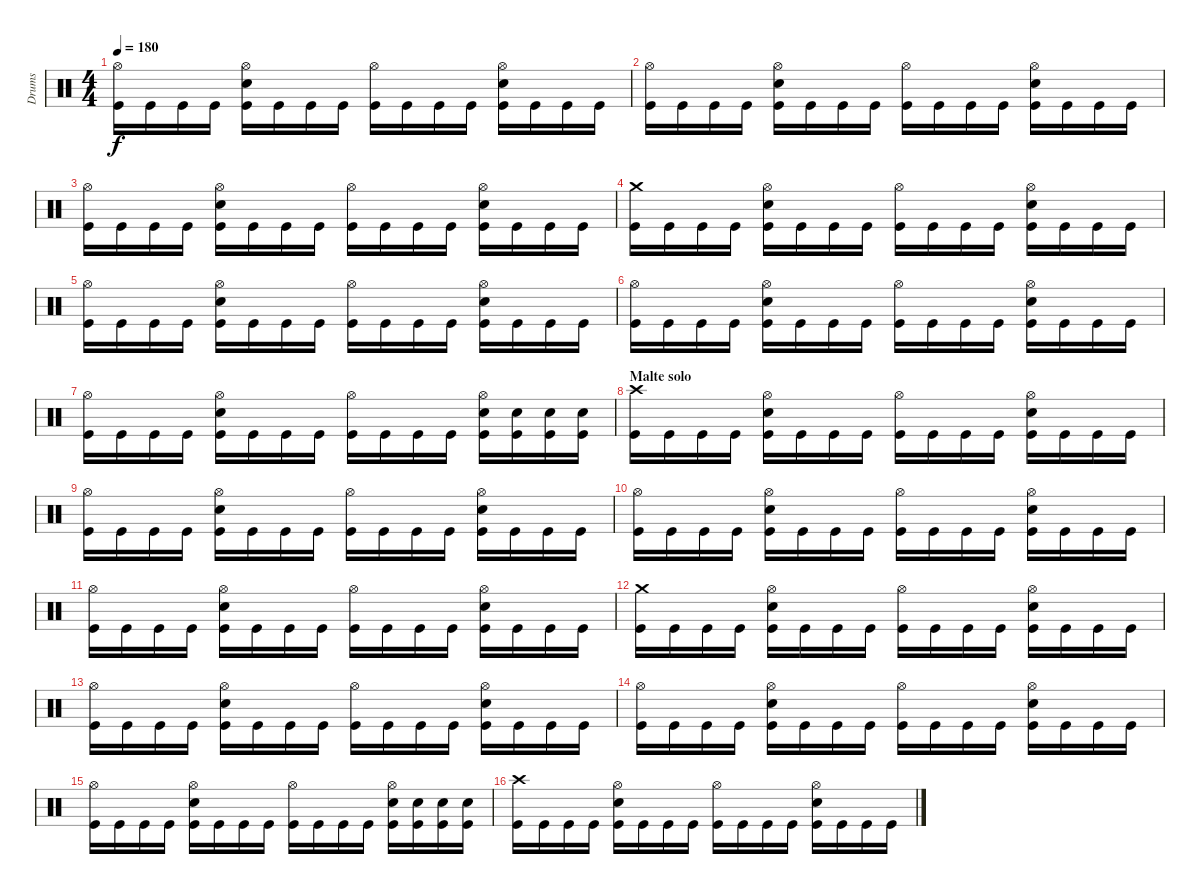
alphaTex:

\track ("Drums" "Drums") {instrument percussion}
\staff {score}
\articulation defaults
\ts (4 4)
\tempo 180
\clef neutral
\ks c
("Hi-Hat (open)" "Kick (hit)").16{dy f} "Kick (hit)".16 "Kick (hit)".16 "Kick (hit)".16 ("Hi-Hat (open)" "Snare (hit) 2" "Kick (hit)").16 "Kick (hit)".16 "Kick (hit)".16 "Kick (hit)".16 ("Hi-Hat (open)" "Kick (hit)").16 "Kick (hit)".16 "Kick (hit)".16 "Kick (hit)".16 ("Hi-Hat (open)" "Snare (hit) 2" "Kick (hit)").16 "Kick (hit)".16 "Kick (hit)".16 "Kick (hit)".16 |
("Hi-Hat (open)" "Kick (hit)").16 "Kick (hit)".16 "Kick (hit)".16 "Kick (hit)".16 ("Hi-Hat (open)" "Snare (hit) 2" "Kick (hit)").16 "Kick (hit)".16 "Kick (hit)".16 "Kick (hit)".16 ("Hi-Hat (open)" "Kick (hit)").16 "Kick (hit)".16 "Kick (hit)".16 "Kick (hit)".16 ("Hi-Hat (open)" "Snare (hit) 2" "Kick (hit)").16 "Kick (hit)".16 "Kick (hit)".16 "Kick (hit)".16 |
("Hi-Hat (open)" "Kick (hit)").16 "Kick (hit)".16 "Kick (hit)".16 "Kick (hit)".16 ("Hi-Hat (open)" "Snare (hit) 2" "Kick (hit)").16 "Kick (hit)".16 "Kick (hit)".16 "Kick (hit)".16 ("Hi-Hat (open)" "Kick (hit)").16 "Kick (hit)".16 "Kick (hit)".16 "Kick (hit)".16 ("Hi-Hat (open)" "Snare (hit) 2" "Kick (hit)").16 "Kick (hit)".16 "Kick (hit)".16 "Kick (hit)".16 |
("Crash medium (hit)" "Kick (hit)").16 "Kick (hit)".16 "Kick (hit)".16 "Kick (hit)".16 ("Hi-Hat (open)" "Snare (hit) 2" "Kick (hit)").16 "Kick (hit)".16 "Kick (hit)".16 "Kick (hit)".16 ("Hi-Hat (open)" "Kick (hit)").16 "Kick (hit)".16 "Kick (hit)".16 "Kick (hit)".16 ("Hi-Hat (open)" "Snare (hit) 2" "Kick (hit)").16 "Kick (hit)".16 "Kick (hit)".16 "Kick (hit)".16 |
("Hi-Hat (open)" "Kick (hit)").16 "Kick (hit)".16 "Kick (hit)".16 "Kick (hit)".16 ("Hi-Hat (open)" "Snare (hit) 2" "Kick (hit)").16 "Kick (hit)".16 "Kick (hit)".16 "Kick (hit)".16 ("Hi-Hat (open)" "Kick (hit)").16 "Kick (hit)".16 "Kick (hit)".16 "Kick (hit)".16 ("Hi-Hat (open)" "Snare (hit) 2" "Kick (hit)").16 "Kick (hit)".16 "Kick (hit)".16 "Kick (hit)".16 |
("Hi-Hat (open)" "Kick (hit)").16 "Kick (hit)".16 "Kick (hit)".16 "Kick (hit)".16 ("Hi-Hat (open)" "Snare (hit) 2" "Kick (hit)").16 "Kick (hit)".16 "Kick (hit)".16 "Kick (hit)".16 ("Hi-Hat (open)" "Kick (hit)").16 "Kick (hit)".16 "Kick (hit)".16 "Kick (hit)".16 ("Hi-Hat (open)" "Snare (hit) 2" "Kick (hit)").16 "Kick (hit)".16 "Kick (hit)".16 "Kick (hit)".16 |
("Hi-Hat (open)" "Kick (hit)").16 "Kick (hit)".16 "Kick (hit)".16 "Kick (hit)".16 ("Hi-Hat (open)" "Snare (hit) 2" "Kick (hit)").16 "Kick (hit)".16 "Kick (hit)".16 "Kick (hit)".16 ("Hi-Hat (open)" "Kick (hit)").16 "Kick (hit)".16 "Kick (hit)".16 "Kick (hit)".16 ("Hi-Hat (open)" "Snare (hit) 2" "Kick (hit)").16 ("Snare (hit) 2" "Kick (hit)").16 ("Snare (hit) 2" "Kick (hit)").16 ("Snare (hit) 2" "Kick (hit)").16 |
\section ("" "Malte solo")
("Crash high (hit)" "Kick (hit)").16 "Kick (hit)".16 "Kick (hit)".16 "Kick (hit)".16 ("Hi-Hat (open)" "Snare (hit) 2" "Kick (hit)").16 "Kick (hit)".16 "Kick (hit)".16 "Kick (hit)".16 ("Hi-Hat (open)" "Kick (hit)").16 "Kick (hit)".16 "Kick (hit)".16 "Kick (hit)".16 ("Hi-Hat (open)" "Snare (hit) 2" "Kick (hit)").16 "Kick (hit)".16 "Kick (hit)".16 "Kick (hit)".16 |
("Hi-Hat (open)" "Kick (hit)").16 "Kick (hit)".16 "Kick (hit)".16 "Kick (hit)".16 ("Hi-Hat (open)" "Snare (hit) 2" "Kick (hit)").16 "Kick (hit)".16 "Kick (hit)".16 "Kick (hit)".16 ("Hi-Hat (open)" "Kick (hit)").16 "Kick (hit)".16 "Kick (hit)".16 "Kick (hit)".16 ("Hi-Hat (open)" "Snare (hit) 2" "Kick (hit)").16 "Kick (hit)".16 "Kick (hit)".16 "Kick (hit)".16 |
("Hi-Hat (open)" "Kick (hit)").16 "Kick (hit)".16 "Kick (hit)".16 "Kick (hit)".16 ("Hi-Hat (open)" "Snare (hit) 2" "Kick (hit)").16 "Kick (hit)".16 "Kick (hit)".16 "Kick (hit)".16 ("Hi-Hat (open)" "Kick (hit)").16 "Kick (hit)".16 "Kick (hit)".16 "Kick (hit)".16 ("Hi-Hat (open)" "Snare (hit) 2" "Kick (hit)").16 "Kick (hit)".16 "Kick (hit)".16 "Kick (hit)".16 |
("Hi-Hat (open)" "Kick (hit)").16 "Kick (hit)".16 "Kick (hit)".16 "Kick (hit)".16 ("Hi-Hat (open)" "Snare (hit) 2" "Kick (hit)").16 "Kick (hit)".16 "Kick (hit)".16 "Kick (hit)".16 ("Hi-Hat (open)" "Kick (hit)").16 "Kick (hit)".16 "Kick (hit)".16 "Kick (hit)".16 ("Hi-Hat (open)" "Snare (hit) 2" "Kick (hit)").16 "Kick (hit)".16 "Kick (hit)".16 "Kick (hit)".16 |
("Crash medium (hit)" "Kick (hit)").16 "Kick (hit)".16 "Kick (hit)".16 "Kick (hit)".16 ("Hi-Hat (open)" "Snare (hit) 2" "Kick (hit)").16 "Kick (hit)".16 "Kick (hit)".16 "Kick (hit)".16 ("Hi-Hat (open)" "Kick (hit)").16 "Kick (hit)".16 "Kick (hit)".16 "Kick (hit)".16 ("Hi-Hat (open)" "Snare (hit) 2" "Kick (hit)").16 "Kick (hit)".16 "Kick (hit)".16 "Kick (hit)".16 |
("Hi-Hat (open)" "Kick (hit)").16 "Kick (hit)".16 "Kick (hit)".16 "Kick (hit)".16 ("Hi-Hat (open)" "Snare (hit) 2" "Kick (hit)").16 "Kick (hit)".16 "Kick (hit)".16 "Kick (hit)".16 ("Hi-Hat (open)" "Kick (hit)").16 "Kick (hit)".16 "Kick (hit)".16 "Kick (hit)".16 ("Hi-Hat (open)" "Snare (hit) 2" "Kick (hit)").16 "Kick (hit)".16 "Kick (hit)".16 "Kick (hit)".16 |
("Hi-Hat (open)" "Kick (hit)").16 "Kick (hit)".16 "Kick (hit)".16 "Kick (hit)".16 ("Hi-Hat (open)" "Snare (hit) 2" "Kick (hit)").16 "Kick (hit)".16 "Kick (hit)".16 "Kick (hit)".16 ("Hi-Hat (open)" "Kick (hit)").16 "Kick (hit)".16 "Kick (hit)".16 "Kick (hit)".16 ("Hi-Hat (open)" "Snare (hit) 2" "Kick (hit)").16 "Kick (hit)".16 "Kick (hit)".16 "Kick (hit)".16 |
("Hi-Hat (open)" "Kick (hit)").16 "Kick (hit)".16 "Kick (hit)".16 "Kick (hit)".16 ("Hi-Hat (open)" "Snare (hit) 2" "Kick (hit)").16 "Kick (hit)".16 "Kick (hit)".16 "Kick (hit)".16 ("Hi-Hat (open)" "Kick (hit)").16 "Kick (hit)".16 "Kick (hit)".16 "Kick (hit)".16 ("Hi-Hat (open)" "Snare (hit) 2" "Kick (hit)").16 ("Snare (hit) 2" "Kick (hit)").16 ("Snare (hit) 2" "Kick (hit)").16 ("Snare (hit) 2" "Kick (hit)").16 |
("Crash high (hit)" "Kick (hit)").16 "Kick (hit)".16 "Kick (hit)".16 "Kick (hit)".16 ("Hi-Hat (open)" "Snare (hit) 2" "Kick (hit)").16 "Kick (hit)".16 "Kick (hit)".16 "Kick (hit)".16 ("Hi-Hat (open)" "Kick (hit)").16 "Kick (hit)".16 "Kick (hit)".16 "Kick (hit)".16 ("Hi-Hat (open)" "Snare (hit) 2" "Kick (hit)").16 "Kick (hit)".16 "Kick (hit)".16 "Kick (hit)".16
